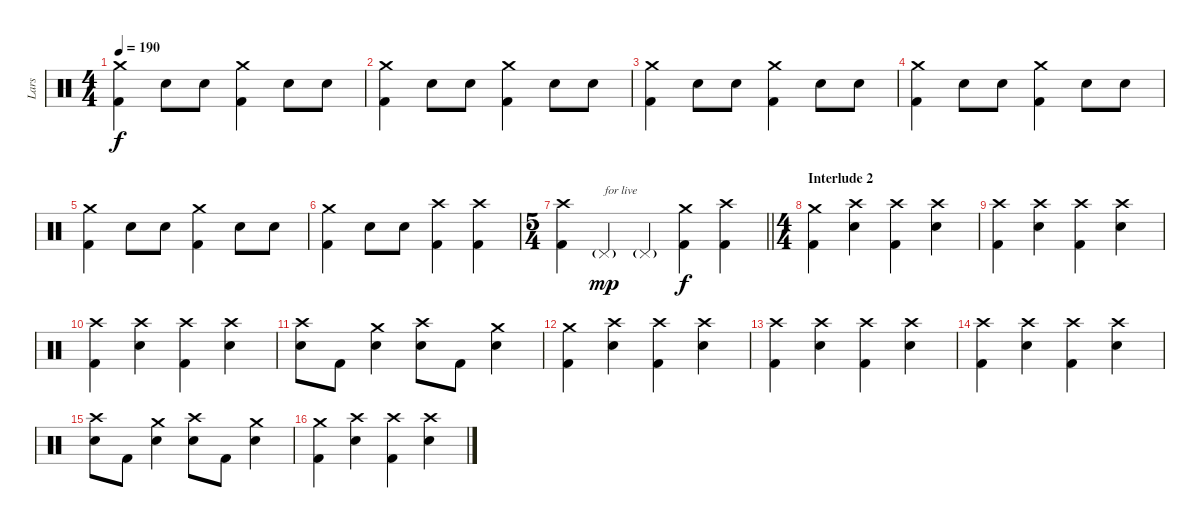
\track ("Lars" "Lars") {instrument percussion}
\staff {score}
\articulation defaults
\ts (4 4)
\tempo 190
\clef neutral
\ks c
("Crash medium (hit)" "Kick (hit) 2").4{dy f} "Electric Snare (hit)".8 "Electric Snare (hit)".8 ("Crash medium (hit)" "Kick (hit) 2").4 "Electric Snare (hit)".8 "Electric Snare (hit)".8 |
("Crash medium (hit)" "Kick (hit) 2").4 "Electric Snare (hit)".8 "Electric Snare (hit)".8 ("Crash medium (hit)" "Kick (hit) 2").4 "Electric Snare (hit)".8 "Electric Snare (hit)".8 |
("Crash medium (hit)" "Kick (hit) 2").4 "Electric Snare (hit)".8 "Electric Snare (hit)".8 ("Crash medium (hit)" "Kick (hit) 2").4 "Electric Snare (hit)".8 "Electric Snare (hit)".8 |
("Crash medium (hit)" "Kick (hit) 2").4 "Electric Snare (hit)".8 "Electric Snare (hit)".8 ("Crash medium (hit)" "Kick (hit) 2").4 "Electric Snare (hit)".8 "Electric Snare (hit)".8 |
("Crash medium (hit)" "Kick (hit) 2").4 "Electric Snare (hit)".8 "Electric Snare (hit)".8 ("Crash medium (hit)" "Kick (hit) 2").4 "Electric Snare (hit)".8 "Electric Snare (hit)".8 |
("Crash medium (hit)" "Kick (hit) 2").4 "Electric Snare (hit)".8 "Electric Snare (hit)".8 ("Crash high (hit)" "Kick (hit) 2").4 ("Crash high (hit)" "Kick (hit) 2").4 |
\ts (5 4)
\barLineRight lightlight
("Crash high (hit)" "Kick (hit) 2").4 "Pedal Hi-Hat (hit)"{g}.4{txt "for live" dy mp} "Pedal Hi-Hat (hit)"{g}.4 ("Crash medium (hit)" "Kick (hit) 2").4{dy f} ("Crash high (hit)" "Kick (hit) 2").4 |
\ts (4 4)
\section ("" "Interlude 2")
("Crash medium (hit)" "Kick (hit) 2").4 ("Crash high (hit)" "Electric Snare (hit)").4 ("Crash high (hit)" "Kick (hit) 2").4 ("Crash high (hit)" "Electric Snare (hit)").4 |
("Crash high (hit)" "Kick (hit) 2").4 ("Crash high (hit)" "Electric Snare (hit)").4 ("Crash high (hit)" "Kick (hit) 2").4 ("Crash high (hit)" "Electric Snare (hit)").4 |
("Crash high (hit)" "Kick (hit) 2").4 ("Crash high (hit)" "Electric Snare (hit)").4 ("Crash high (hit)" "Kick (hit) 2").4 ("Crash high (hit)" "Electric Snare (hit)").4 |
("Crash high (hit)" "Electric Snare (hit)").8 "Kick (hit) 2".8 ("Crash medium (hit)" "Electric Snare (hit)").4 ("Crash high (hit)" "Electric Snare (hit)").8 "Kick (hit) 2".8 ("Crash medium (hit)" "Electric Snare (hit)").4 |
("Crash medium (hit)" "Kick (hit) 2").4 ("Crash high (hit)" "Electric Snare (hit)").4 ("Crash high (hit)" "Kick (hit) 2").4 ("Crash high (hit)" "Electric Snare (hit)").4 |
("Crash high (hit)" "Kick (hit) 2").4 ("Crash high (hit)" "Electric Snare (hit)").4 ("Crash high (hit)" "Kick (hit) 2").4 ("Crash high (hit)" "Electric Snare (hit)").4 |
("Crash high (hit)" "Kick (hit) 2").4 ("Crash high (hit)" "Electric Snare (hit)").4 ("Crash high (hit)" "Kick (hit) 2").4 ("Crash high (hit)" "Electric Snare (hit)").4 |
("Crash high (hit)" "Electric Snare (hit)").8 "Kick (hit) 2".8 ("Crash medium (hit)" "Electric Snare (hit)").4 ("Crash high (hit)" "Electric Snare (hit)").8 "Kick (hit) 2".8 ("Crash medium (hit)" "Electric Snare (hit)").4 |
("Crash medium (hit)" "Kick (hit) 2").4 ("Crash high (hit)" "Electric Snare (hit)").4 ("Crash high (hit)" "Kick (hit) 2").4 ("Crash high (hit)" "Electric Snare (hit)").4
